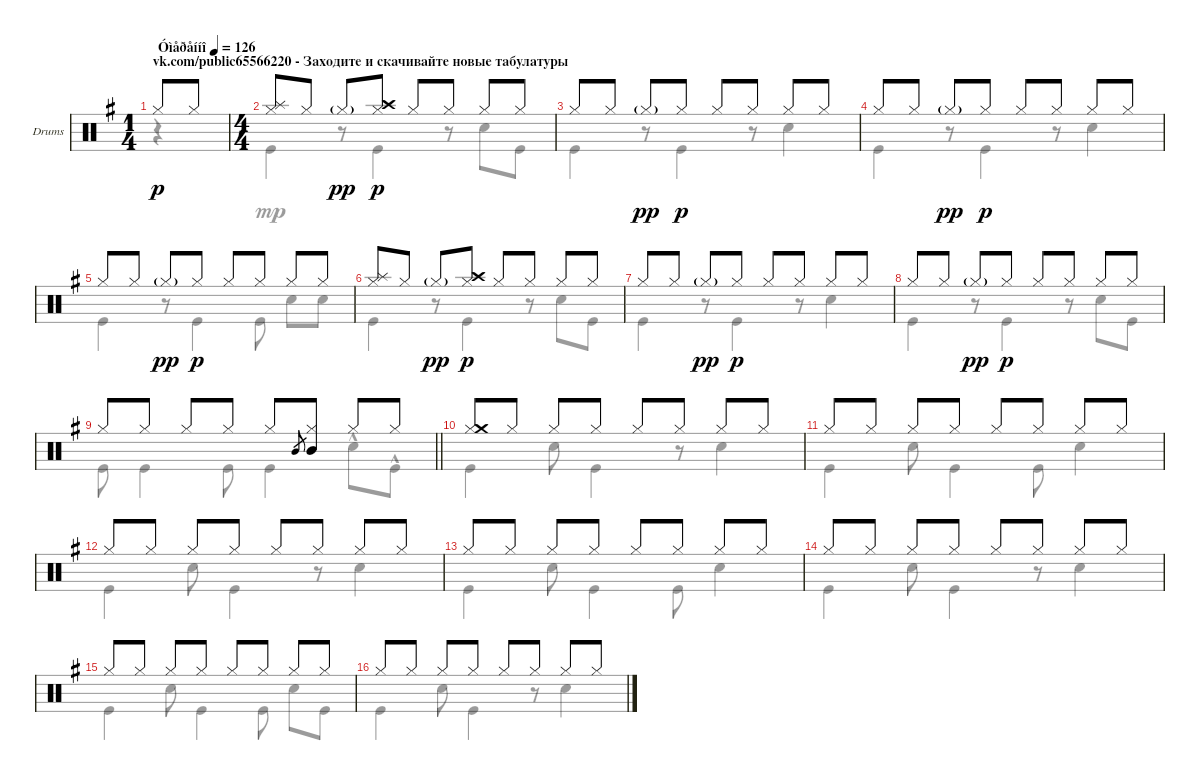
\bracketExtendMode groupsimilarinstruments
\firstSystemTrackNameOrientation horizontal
\otherSystemsTrackNameOrientation horizontal
\track ("Ударные" "Drums") {instrument percussion}
\staff {score}
\articulation defaults
\voice
\ts (1 4)
\beaming (8 2)
\section ("" "vk.com/public65566220 - Заходите и скачивайте новые табулатуры")
\tempo (126 "Óìåðåííî")
\clef neutral
\ks eminor "Hi-Hat (closed)".8{dy p} "Hi-Hat (closed)".8
|
\ts (4 4)
\beaming (8 2 2 2 2)
("Hi-Hat (closed)" "Splash (hit)").8 "Hi-Hat (closed)".8 "Hi-Hat (closed)"{g}.8{dy pp} ("Hi-Hat (closed)" "Crash high (hit)").8{dy p} "Hi-Hat (closed)".8 "Hi-Hat (closed)".8 "Hi-Hat (closed)".8 "Hi-Hat (closed)".8 |
"Hi-Hat (closed)".8 "Hi-Hat (closed)".8 "Hi-Hat (closed)"{g}.8{dy pp} "Hi-Hat (closed)".8{dy p} "Hi-Hat (closed)".8 "Hi-Hat (closed)".8 "Hi-Hat (closed)".8 "Hi-Hat (closed)".8 |
"Hi-Hat (closed)".8 "Hi-Hat (closed)".8 "Hi-Hat (closed)"{g}.8{dy pp} "Hi-Hat (closed)".8{dy p} "Hi-Hat (closed)".8 "Hi-Hat (closed)".8 "Hi-Hat (closed)".8 "Hi-Hat (closed)".8 |
"Hi-Hat (closed)".8 "Hi-Hat (closed)".8 "Hi-Hat (closed)"{g}.8{dy pp} "Hi-Hat (closed)".8{dy p} "Hi-Hat (closed)".8 "Hi-Hat (closed)".8 "Hi-Hat (closed)".8 "Hi-Hat (closed)".8 |
("Hi-Hat (closed)" "Splash (hit)").8 "Hi-Hat (closed)".8 "Hi-Hat (closed)"{g}.8{dy pp} ("Hi-Hat (closed)" "Crash high (hit)").8{dy p} "Hi-Hat (closed)".8 "Hi-Hat (closed)".8 "Hi-Hat (closed)".8 "Hi-Hat (closed)".8 |
"Hi-Hat (closed)".8 "Hi-Hat (closed)".8 "Hi-Hat (closed)"{g}.8{dy pp} "Hi-Hat (closed)".8{dy p} "Hi-Hat (closed)".8 "Hi-Hat (closed)".8 "Hi-Hat (closed)".8 "Hi-Hat (closed)".8 |
"Hi-Hat (closed)".8 "Hi-Hat (closed)".8 "Hi-Hat (closed)"{g}.8{dy pp} "Hi-Hat (closed)".8{dy p} "Hi-Hat (closed)".8 "Hi-Hat (closed)".8 "Hi-Hat (closed)".8 "Hi-Hat (closed)".8 |
\barLineRight lightlight "Hi-Hat (closed)".8 "Hi-Hat (closed)".8 "Hi-Hat (closed)".8 "Hi-Hat (closed)".8 "Hi-Hat (closed)".8 "Mid Tom (hit)".8{gr}
("Hi-Hat (closed)" "Mid Tom (hit)").8 "Hi-Hat (closed)".8 "Hi-Hat (closed)".8 |
\section ("" "")
("Hi-Hat (closed)" "Crash medium (hit)").8 "Hi-Hat (closed)".8 "Hi-Hat (closed)".8 "Hi-Hat (closed)".8 "Hi-Hat (closed)".8 "Hi-Hat (closed)".8 "Hi-Hat (closed)".8 "Hi-Hat (closed)".8 |
"Hi-Hat (closed)".8 "Hi-Hat (closed)".8 "Hi-Hat (closed)".8 "Hi-Hat (closed)".8 "Hi-Hat (closed)".8 "Hi-Hat (closed)".8 "Hi-Hat (closed)".8 "Hi-Hat (closed)".8 |
"Hi-Hat (closed)".8 "Hi-Hat (closed)".8 "Hi-Hat (closed)".8 "Hi-Hat (closed)".8 "Hi-Hat (closed)".8 "Hi-Hat (closed)".8 "Hi-Hat (closed)".8 "Hi-Hat (closed)".8 |
"Hi-Hat (closed)".8 "Hi-Hat (closed)".8 "Hi-Hat (closed)".8 "Hi-Hat (closed)".8 "Hi-Hat (closed)".8 "Hi-Hat (closed)".8 "Hi-Hat (closed)".8 "Hi-Hat (closed)".8 |
"Hi-Hat (closed)".8 "Hi-Hat (closed)".8 "Hi-Hat (closed)".8 "Hi-Hat (closed)".8 "Hi-Hat (closed)".8 "Hi-Hat (closed)".8 "Hi-Hat (closed)".8 "Hi-Hat (closed)".8 |
"Hi-Hat (closed)".8 "Hi-Hat (closed)".8 "Hi-Hat (closed)".8 "Hi-Hat (closed)".8 "Hi-Hat (closed)".8 "Hi-Hat (closed)".8 "Hi-Hat (closed)".8 "Hi-Hat (closed)".8 |
"Hi-Hat (closed)".8 "Hi-Hat (closed)".8 "Hi-Hat (closed)".8 "Hi-Hat (closed)".8 "Hi-Hat (closed)".8 "Hi-Hat (closed)".8 "Hi-Hat (closed)".8 "Hi-Hat (closed)".8
\voice
\clef neutral
\ottava regular
\simile none
\ks eminor
r.4{dy mp} |
"Kick (hit)".4 r.8 "Kick (hit)".4 r.8 "Snare (hit) 2".8 "Kick (hit)".8 |
"Kick (hit)".4 r.8 "Kick (hit)".4 r.8 "Snare (hit) 2".4 |
"Kick (hit)".4 r.8 "Kick (hit)".4 r.8 "Snare (hit) 2".4 |
"Kick (hit)".4 r.8 "Kick (hit)".4 "Kick (hit)".8 "Snare (hit) 2".8 "Snare (hit) 2".8 |
"Kick (hit)".4 r.8 "Kick (hit)".4 r.8 "Snare (hit) 2".8 "Kick (hit)".8 |
"Kick (hit)".4 r.8 "Kick (hit)".4 r.8 "Snare (hit) 2".4 |
"Kick (hit)".4 r.8 "Kick (hit)".4 r.8 "Snare (hit) 2".8 "Kick (hit)".8 |
\barLineRight lightlight "Kick (hit)".8 "Kick (hit)".4 "Kick (hit)".8 "Kick (hit)".4 "Snare (hit) 2"{hac}.8 "Kick (hit)"{hac}.8
|
"Kick (hit)".4 "Snare (hit) 2".8 "Kick (hit)".4 r.8 "Snare (hit) 2".4 |
"Kick (hit)".4 "Snare (hit) 2".8 "Kick (hit)".4 "Kick (hit)".8 "Snare (hit) 2".4 |
"Kick (hit)".4 "Snare (hit) 2".8 "Kick (hit)".4 r.8 "Snare (hit) 2".4 |
"Kick (hit)".4 "Snare (hit) 2".8 "Kick (hit)".4 "Kick (hit)".8 "Snare (hit) 2".4 |
"Kick (hit)".4 "Snare (hit) 2".8 "Kick (hit)".4 r.8 "Snare (hit) 2".4 |
"Kick (hit)".4 "Snare (hit) 2".8 "Kick (hit)".4 "Kick (hit)".8 "Snare (hit) 2".8 "Kick (hit)".8 |
"Kick (hit)".4 "Snare (hit) 2".8 "Kick (hit)".4 r.8 "Snare (hit) 2".4
